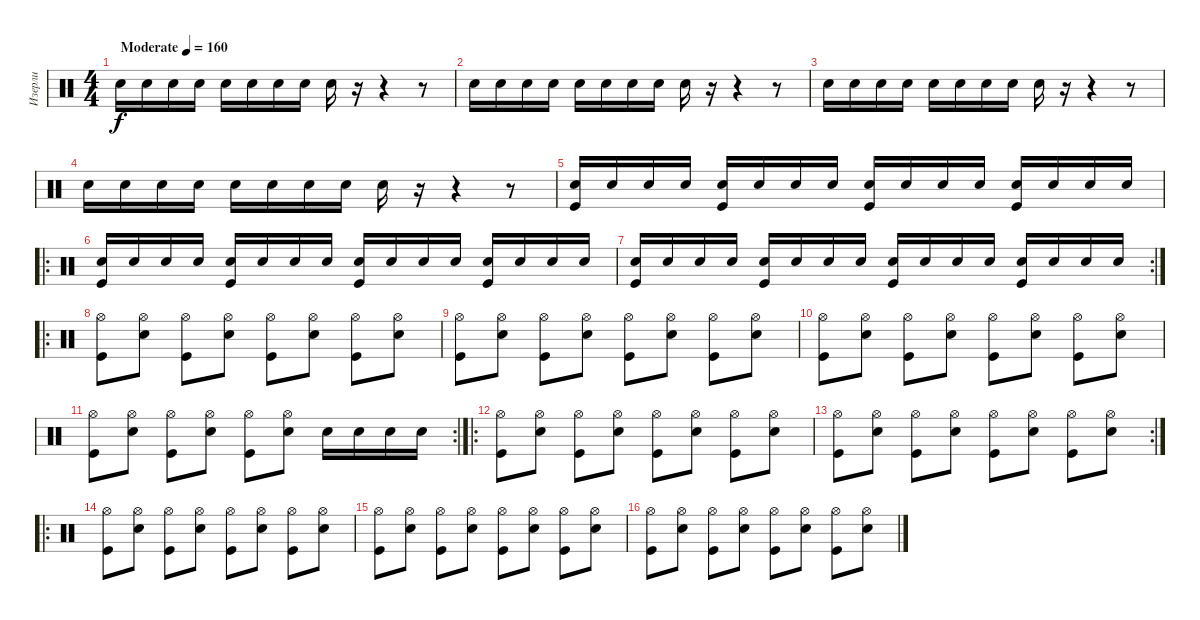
\track ("Изерли" "Изерли") {instrument percussion}
\staff {score}
\articulation defaults
\ts (4 4)
\tempo (160 "Moderate")
\clef neutral
\ks c "Snare (hit) 2".16{dy f} "Snare (hit) 2".16 "Snare (hit) 2".16 "Snare (hit) 2".16 "Snare (hit) 2".16 "Snare (hit) 2".16 "Snare (hit) 2".16 "Snare (hit) 2".16 "Snare (hit) 2".16
r.16 r.4 r.8 |
"Snare (hit) 2".16 "Snare (hit) 2".16 "Snare (hit) 2".16 "Snare (hit) 2".16 "Snare (hit) 2".16 "Snare (hit) 2".16 "Snare (hit) 2".16 "Snare (hit) 2".16 "Snare (hit) 2".16 r.16 r.4 r.8 |
"Snare (hit) 2".16 "Snare (hit) 2".16 "Snare (hit) 2".16 "Snare (hit) 2".16 "Snare (hit) 2".16 "Snare (hit) 2".16 "Snare (hit) 2".16 "Snare (hit) 2".16 "Snare (hit) 2".16 r.16 r.4 r.8 |
"Snare (hit) 2".16 "Snare (hit) 2".16 "Snare (hit) 2".16 "Snare (hit) 2".16 "Snare (hit) 2".16 "Snare (hit) 2".16 "Snare (hit) 2".16 "Snare (hit) 2".16 "Snare (hit) 2".16 r.16 r.4 r.8 |
("Snare (hit) 2" "Kick (hit)").16 "Snare (hit) 2".16 "Snare (hit) 2".16 "Snare (hit) 2".16 ("Snare (hit) 2" "Kick (hit)").16 "Snare (hit) 2".16 "Snare (hit) 2".16 "Snare (hit) 2".16 ("Snare (hit) 2" "Kick (hit)").16 "Snare (hit) 2".16 "Snare (hit) 2".16 "Snare (hit) 2".16 ("Snare (hit) 2" "Kick (hit)").16 "Snare (hit) 2".16 "Snare (hit) 2".16 "Snare (hit) 2".16 |
\ro
("Snare (hit) 2" "Kick (hit)").16 "Snare (hit) 2".16 "Snare (hit) 2".16 "Snare (hit) 2".16 ("Snare (hit) 2" "Kick (hit)").16 "Snare (hit) 2".16 "Snare (hit) 2".16 "Snare (hit) 2".16 ("Snare (hit) 2" "Kick (hit)").16 "Snare (hit) 2".16 "Snare (hit) 2".16 "Snare (hit) 2".16 ("Snare (hit) 2" "Kick (hit)").16 "Snare (hit) 2".16 "Snare (hit) 2".16 "Snare (hit) 2".16 |
\rc 2
("Snare (hit) 2" "Kick (hit)").16 "Snare (hit) 2".16 "Snare (hit) 2".16 "Snare (hit) 2".16 ("Snare (hit) 2" "Kick (hit)").16 "Snare (hit) 2".16 "Snare (hit) 2".16 "Snare (hit) 2".16 ("Snare (hit) 2" "Kick (hit)").16 "Snare (hit) 2".16 "Snare (hit) 2".16 "Snare (hit) 2".16 ("Snare (hit) 2" "Kick (hit)").16 "Snare (hit) 2".16 "Snare (hit) 2".16 "Snare (hit) 2".16 |
\ro
("Hi-Hat (open)" "Kick (hit)").8 ("Hi-Hat (open)" "Snare (hit) 2").8 ("Hi-Hat (open)" "Kick (hit)").8 ("Hi-Hat (open)" "Snare (hit) 2").8 ("Hi-Hat (open)" "Kick (hit)").8 ("Hi-Hat (open)" "Snare (hit) 2").8 ("Hi-Hat (open)" "Kick (hit)").8 ("Hi-Hat (open)" "Snare (hit) 2").8 |
("Hi-Hat (open)" "Kick (hit)").8 ("Hi-Hat (open)" "Snare (hit) 2").8 ("Hi-Hat (open)" "Kick (hit)").8 ("Hi-Hat (open)" "Snare (hit) 2").8 ("Hi-Hat (open)" "Kick (hit)").8 ("Hi-Hat (open)" "Snare (hit) 2").8 ("Hi-Hat (open)" "Kick (hit)").8 ("Hi-Hat (open)" "Snare (hit) 2").8 |
("Hi-Hat (open)" "Kick (hit)").8 ("Hi-Hat (open)" "Snare (hit) 2").8 ("Hi-Hat (open)" "Kick (hit)").8 ("Hi-Hat (open)" "Snare (hit) 2").8 ("Hi-Hat (open)" "Kick (hit)").8 ("Hi-Hat (open)" "Snare (hit) 2").8 ("Hi-Hat (open)" "Kick (hit)").8 ("Hi-Hat (open)" "Snare (hit) 2").8 |
\rc 2
("Hi-Hat (open)" "Kick (hit)").8 ("Hi-Hat (open)" "Snare (hit) 2").8 ("Hi-Hat (open)" "Kick (hit)").8 ("Hi-Hat (open)" "Snare (hit) 2").8 ("Hi-Hat (open)" "Kick (hit)").8 ("Hi-Hat (open)" "Snare (hit) 2").8 "Snare (hit) 2".16 "Snare (hit) 2".16 "Snare (hit) 2".16 "Snare (hit) 2".16 |
\ro
("Hi-Hat (open)" "Kick (hit)").8 ("Hi-Hat (open)" "Snare (hit) 2").8 ("Hi-Hat (open)" "Kick (hit)").8 ("Hi-Hat (open)" "Snare (hit) 2").8 ("Hi-Hat (open)" "Kick (hit)").8 ("Hi-Hat (open)" "Snare (hit) 2").8 ("Hi-Hat (open)" "Kick (hit)").8 ("Hi-Hat (open)" "Snare (hit) 2").8 |
\rc 2
("Hi-Hat (open)" "Kick (hit)").8 ("Hi-Hat (open)" "Snare (hit) 2").8 ("Hi-Hat (open)" "Kick (hit)").8 ("Hi-Hat (open)" "Snare (hit) 2").8 ("Hi-Hat (open)" "Kick (hit)").8 ("Hi-Hat (open)" "Snare (hit) 2").8 ("Hi-Hat (open)" "Kick (hit)").8 ("Hi-Hat (open)" "Snare (hit) 2").8 |
\ro
("Hi-Hat (open)" "Kick (hit)").8 ("Hi-Hat (open)" "Snare (hit) 2").8 ("Hi-Hat (open)" "Kick (hit)").8 ("Hi-Hat (open)" "Snare (hit) 2").8 ("Hi-Hat (open)" "Kick (hit)").8 ("Hi-Hat (open)" "Snare (hit) 2").8 ("Hi-Hat (open)" "Kick (hit)").8 ("Hi-Hat (open)" "Snare (hit) 2").8 |
("Hi-Hat (open)" "Kick (hit)").8 ("Hi-Hat (open)" "Snare (hit) 2").8 ("Hi-Hat (open)" "Kick (hit)").8 ("Hi-Hat (open)" "Snare (hit) 2").8 ("Hi-Hat (open)" "Kick (hit)").8 ("Hi-Hat (open)" "Snare (hit) 2").8 ("Hi-Hat (open)" "Kick (hit)").8 ("Hi-Hat (open)" "Snare (hit) 2").8 |
("Hi-Hat (open)" "Kick (hit)").8 ("Hi-Hat (open)" "Snare (hit) 2").8 ("Hi-Hat (open)" "Kick (hit)").8 ("Hi-Hat (open)" "Snare (hit) 2").8 ("Hi-Hat (open)" "Kick (hit)").8 ("Hi-Hat (open)" "Snare (hit) 2").8 ("Hi-Hat (open)" "Kick (hit)").8 ("Hi-Hat (open)" "Snare (hit) 2").8
